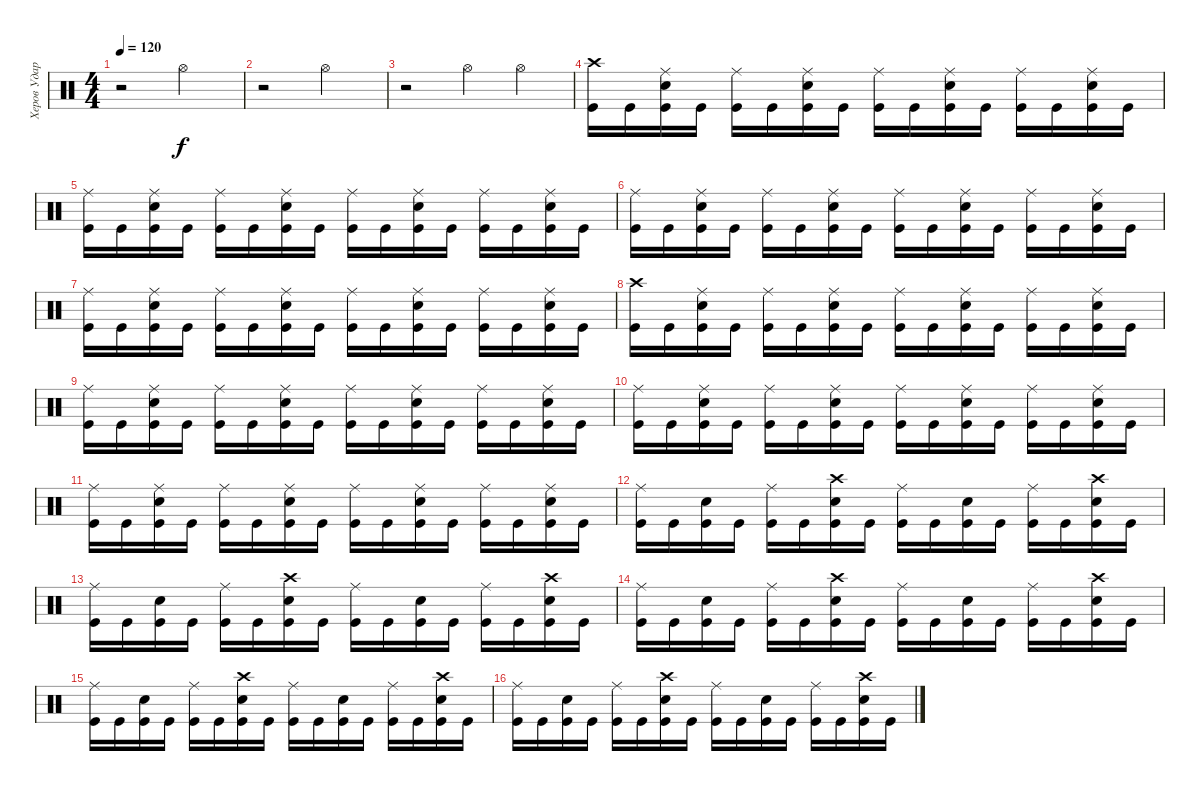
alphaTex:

\track ("Херов Ударник" "Херов Удар") {instrument percussion}
\staff {score}
\articulation defaults
\ts (4 4)
\tempo 120
\clef neutral
\ks c
r.2{dy f} "Hi-Hat (open)".2 |
r.2 "Hi-Hat (open)".2 |
r.2 "Hi-Hat (open)".4 "Hi-Hat (open)".4 |
("Crash high (hit)" "Kick (hit)").16 "Kick (hit)".16 ("Ride (middle)" "Electric Snare (hit)" "Kick (hit)").16 "Kick (hit)".16 ("Ride (middle)" "Kick (hit)").16 "Kick (hit)".16 ("Ride (middle)" "Electric Snare (hit)" "Kick (hit)").16 "Kick (hit)".16 ("Ride (middle)" "Kick (hit)").16 "Kick (hit)".16 ("Ride (middle)" "Electric Snare (hit)" "Kick (hit)").16 "Kick (hit)".16 ("Ride (middle)" "Kick (hit)").16 "Kick (hit)".16 ("Ride (middle)" "Electric Snare (hit)" "Kick (hit)").16 "Kick (hit)".16 |
("Ride (middle)" "Kick (hit)").16 "Kick (hit)".16 ("Ride (middle)" "Electric Snare (hit)" "Kick (hit)").16 "Kick (hit)".16 ("Ride (middle)" "Kick (hit)").16 "Kick (hit)".16 ("Ride (middle)" "Electric Snare (hit)" "Kick (hit)").16 "Kick (hit)".16 ("Ride (middle)" "Kick (hit)").16 "Kick (hit)".16 ("Ride (middle)" "Electric Snare (hit)" "Kick (hit)").16 "Kick (hit)".16 ("Ride (middle)" "Kick (hit)").16 "Kick (hit)".16 ("Ride (middle)" "Electric Snare (hit)" "Kick (hit)").16 "Kick (hit)".16 |
("Ride (middle)" "Kick (hit)").16 "Kick (hit)".16 ("Ride (middle)" "Electric Snare (hit)" "Kick (hit)").16 "Kick (hit)".16 ("Ride (middle)" "Kick (hit)").16 "Kick (hit)".16 ("Ride (middle)" "Electric Snare (hit)" "Kick (hit)").16 "Kick (hit)".16 ("Ride (middle)" "Kick (hit)").16 "Kick (hit)".16 ("Ride (middle)" "Electric Snare (hit)" "Kick (hit)").16 "Kick (hit)".16 ("Ride (middle)" "Kick (hit)").16 "Kick (hit)".16 ("Ride (middle)" "Electric Snare (hit)" "Kick (hit)").16 "Kick (hit)".16 |
("Ride (middle)" "Kick (hit)").16 "Kick (hit)".16 ("Ride (middle)" "Electric Snare (hit)" "Kick (hit)").16 "Kick (hit)".16 ("Ride (middle)" "Kick (hit)").16 "Kick (hit)".16 ("Ride (middle)" "Electric Snare (hit)" "Kick (hit)").16 "Kick (hit)".16 ("Ride (middle)" "Kick (hit)").16 "Kick (hit)".16 ("Ride (middle)" "Electric Snare (hit)" "Kick (hit)").16 "Kick (hit)".16 ("Ride (middle)" "Kick (hit)").16 "Kick (hit)".16 ("Ride (middle)" "Electric Snare (hit)" "Kick (hit)").16 "Kick (hit)".16 |
("Crash high (hit)" "Kick (hit)").16 "Kick (hit)".16 ("Ride (middle)" "Electric Snare (hit)" "Kick (hit)").16 "Kick (hit)".16 ("Ride (middle)" "Kick (hit)").16 "Kick (hit)".16 ("Ride (middle)" "Electric Snare (hit)" "Kick (hit)").16 "Kick (hit)".16 ("Ride (middle)" "Kick (hit)").16 "Kick (hit)".16 ("Ride (middle)" "Electric Snare (hit)" "Kick (hit)").16 "Kick (hit)".16 ("Ride (middle)" "Kick (hit)").16 "Kick (hit)".16 ("Ride (middle)" "Electric Snare (hit)" "Kick (hit)").16 "Kick (hit)".16 |
("Ride (middle)" "Kick (hit)").16 "Kick (hit)".16 ("Ride (middle)" "Electric Snare (hit)" "Kick (hit)").16 "Kick (hit)".16 ("Ride (middle)" "Kick (hit)").16 "Kick (hit)".16 ("Ride (middle)" "Electric Snare (hit)" "Kick (hit)").16 "Kick (hit)".16 ("Ride (middle)" "Kick (hit)").16 "Kick (hit)".16 ("Ride (middle)" "Electric Snare (hit)" "Kick (hit)").16 "Kick (hit)".16 ("Ride (middle)" "Kick (hit)").16 "Kick (hit)".16 ("Ride (middle)" "Electric Snare (hit)" "Kick (hit)").16 "Kick (hit)".16 |
("Ride (middle)" "Kick (hit)").16 "Kick (hit)".16 ("Ride (middle)" "Electric Snare (hit)" "Kick (hit)").16 "Kick (hit)".16 ("Ride (middle)" "Kick (hit)").16 "Kick (hit)".16 ("Ride (middle)" "Electric Snare (hit)" "Kick (hit)").16 "Kick (hit)".16 ("Ride (middle)" "Kick (hit)").16 "Kick (hit)".16 ("Ride (middle)" "Electric Snare (hit)" "Kick (hit)").16 "Kick (hit)".16 ("Ride (middle)" "Kick (hit)").16 "Kick (hit)".16 ("Ride (middle)" "Electric Snare (hit)" "Kick (hit)").16 "Kick (hit)".16 |
("Ride (middle)" "Kick (hit)").16 "Kick (hit)".16 ("Ride (middle)" "Electric Snare (hit)" "Kick (hit)").16 "Kick (hit)".16 ("Ride (middle)" "Kick (hit)").16 "Kick (hit)".16 ("Ride (middle)" "Electric Snare (hit)" "Kick (hit)").16 "Kick (hit)".16 ("Ride (middle)" "Kick (hit)").16 "Kick (hit)".16 ("Ride (middle)" "Electric Snare (hit)" "Kick (hit)").16 "Kick (hit)".16 ("Ride (middle)" "Kick (hit)").16 "Kick (hit)".16 ("Ride (middle)" "Electric Snare (hit)" "Kick (hit)").16 "Kick (hit)".16 |
("Ride (middle)" "Kick (hit)").16 "Kick (hit)".16 ("Electric Snare (hit)" "Kick (hit)").16 "Kick (hit)".16 ("Ride (middle)" "Kick (hit)").16 "Kick (hit)".16 ("Crash high (hit)" "Electric Snare (hit)" "Kick (hit)").16 "Kick (hit)".16 ("Ride (middle)" "Kick (hit)").16 "Kick (hit)".16 ("Electric Snare (hit)" "Kick (hit)").16 "Kick (hit)".16 ("Ride (middle)" "Kick (hit)").16 "Kick (hit)".16 ("Crash high (hit)" "Electric Snare (hit)" "Kick (hit)").16 "Kick (hit)".16 |
("Ride (middle)" "Kick (hit)").16 "Kick (hit)".16 ("Electric Snare (hit)" "Kick (hit)").16 "Kick (hit)".16 ("Ride (middle)" "Kick (hit)").16 "Kick (hit)".16 ("Crash high (hit)" "Electric Snare (hit)" "Kick (hit)").16 "Kick (hit)".16 ("Ride (middle)" "Kick (hit)").16 "Kick (hit)".16 ("Electric Snare (hit)" "Kick (hit)").16 "Kick (hit)".16 ("Ride (middle)" "Kick (hit)").16 "Kick (hit)".16 ("Crash high (hit)" "Electric Snare (hit)" "Kick (hit)").16 "Kick (hit)".16 |
("Ride (middle)" "Kick (hit)").16 "Kick (hit)".16 ("Electric Snare (hit)" "Kick (hit)").16 "Kick (hit)".16 ("Ride (middle)" "Kick (hit)").16 "Kick (hit)".16 ("Crash high (hit)" "Electric Snare (hit)" "Kick (hit)").16 "Kick (hit)".16 ("Ride (middle)" "Kick (hit)").16 "Kick (hit)".16 ("Electric Snare (hit)" "Kick (hit)").16 "Kick (hit)".16 ("Ride (middle)" "Kick (hit)").16 "Kick (hit)".16 ("Crash high (hit)" "Electric Snare (hit)" "Kick (hit)").16 "Kick (hit)".16 |
("Ride (middle)" "Kick (hit)").16 "Kick (hit)".16 ("Electric Snare (hit)" "Kick (hit)").16 "Kick (hit)".16 ("Ride (middle)" "Kick (hit)").16 "Kick (hit)".16 ("Crash high (hit)" "Electric Snare (hit)" "Kick (hit)").16 "Kick (hit)".16 ("Ride (middle)" "Kick (hit)").16 "Kick (hit)".16 ("Electric Snare (hit)" "Kick (hit)").16 "Kick (hit)".16 ("Ride (middle)" "Kick (hit)").16 "Kick (hit)".16 ("Crash high (hit)" "Electric Snare (hit)" "Kick (hit)").16 "Kick (hit)".16 |
("Ride (middle)" "Kick (hit)").16 "Kick (hit)".16 ("Electric Snare (hit)" "Kick (hit)").16 "Kick (hit)".16 ("Ride (middle)" "Kick (hit)").16 "Kick (hit)".16 ("Crash high (hit)" "Electric Snare (hit)" "Kick (hit)").16 "Kick (hit)".16 ("Ride (middle)" "Kick (hit)").16 "Kick (hit)".16 ("Electric Snare (hit)" "Kick (hit)").16 "Kick (hit)".16 ("Ride (middle)" "Kick (hit)").16 "Kick (hit)".16 ("Crash high (hit)" "Electric Snare (hit)" "Kick (hit)").16 "Kick (hit)".16
